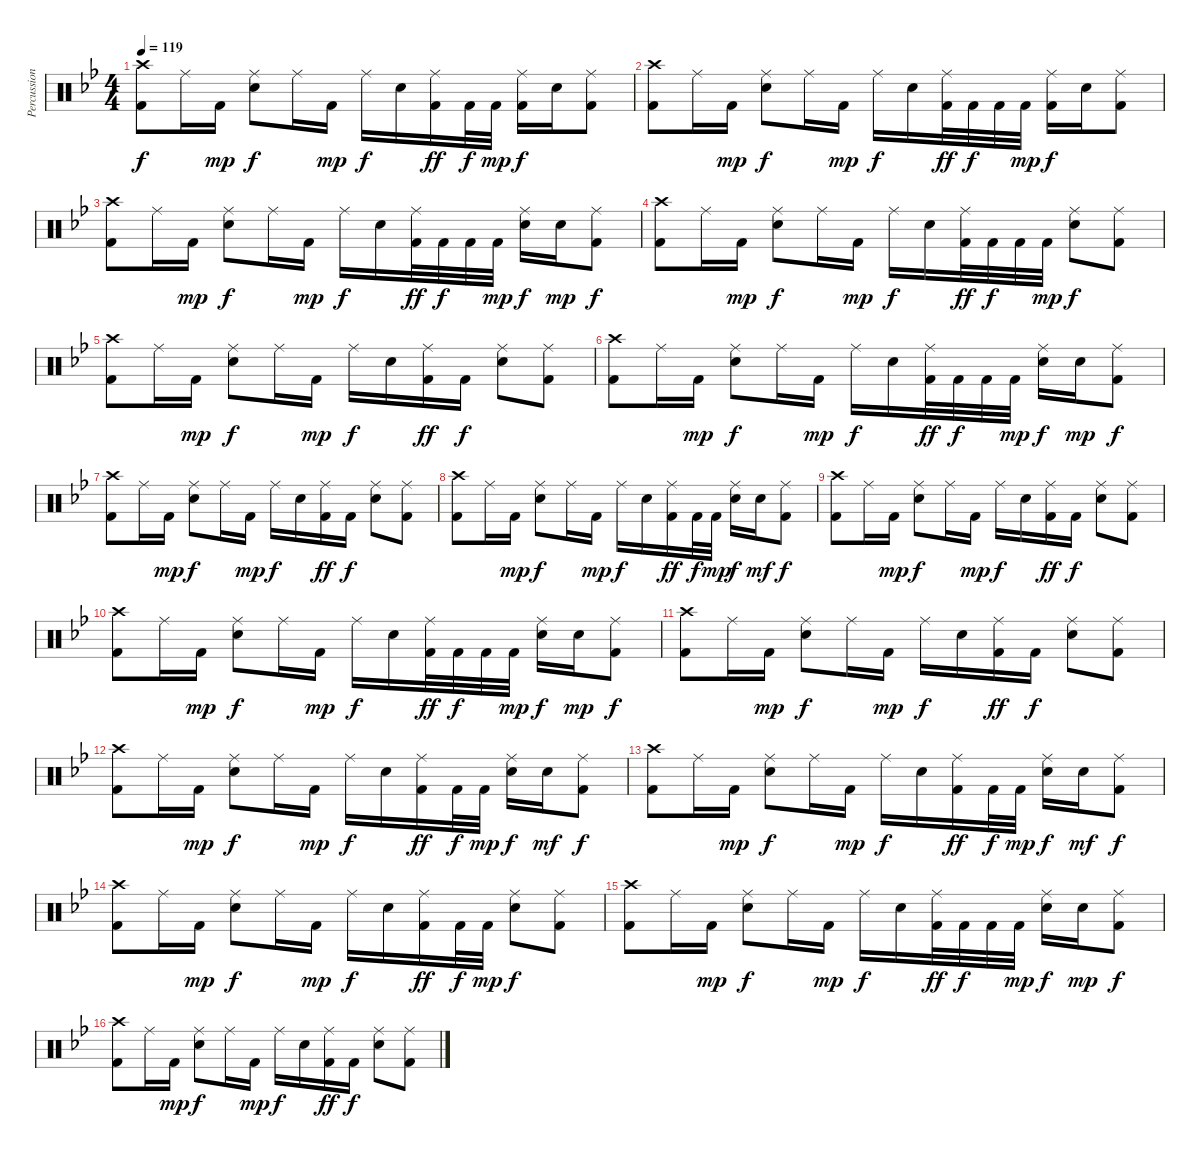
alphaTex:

\track ("Percussions" "Percussion") {instrument percussion}
\staff {score}
\articulation defaults
\ts (4 4)
\tempo 119
\clef neutral
\ks bb
("Crash high (hit)" "Kick (hit) 2").8{dy f} "Ride (middle)".16 "Kick (hit) 2".16{dy mp} ("Ride (middle)" "Snare (hit) 2").8{dy f} "Ride (middle)".16 "Kick (hit) 2".16{dy mp} "Ride (middle)".16{dy f} "Snare (hit) 2".16 ("Ride (middle)" "Kick (hit) 2").16{dy ff} "Kick (hit) 2".32{dy f} "Kick (hit) 2".32{dy mp} ("Ride (middle)" "Kick (hit) 2").16{dy f} "Snare (hit) 2".16 ("Ride (middle)" "Kick (hit) 2").8 |
("Crash high (hit)" "Kick (hit) 2").8 "Ride (middle)".16 "Kick (hit) 2".16{dy mp} ("Ride (middle)" "Snare (hit) 2").8{dy f} "Ride (middle)".16 "Kick (hit) 2".16{dy mp} "Ride (middle)".16{dy f} "Snare (hit) 2".16 ("Ride (middle)" "Kick (hit) 2").32{dy ff} "Kick (hit) 2".32{dy f} "Kick (hit) 2".32 "Kick (hit) 2".32{dy mp} ("Ride (middle)" "Kick (hit) 2").16{dy f} "Snare (hit) 2".16 ("Ride (middle)" "Kick (hit) 2").8 |
("Crash high (hit)" "Kick (hit) 2").8 "Ride (middle)".16 "Kick (hit) 2".16{dy mp} ("Ride (middle)" "Snare (hit) 2").8{dy f} "Ride (middle)".16 "Kick (hit) 2".16{dy mp} "Ride (middle)".16{dy f} "Snare (hit) 2".16 ("Ride (middle)" "Kick (hit) 2").32{dy ff} "Kick (hit) 2".32{dy f} "Kick (hit) 2".32 "Kick (hit) 2".32{dy mp} ("Ride (middle)" "Snare (hit) 2").16{dy f} "Snare (hit) 2".16{dy mp} ("Ride (middle)" "Kick (hit) 2").8{dy f} |
("Crash high (hit)" "Kick (hit) 2").8 "Ride (middle)".16 "Kick (hit) 2".16{dy mp} ("Ride (middle)" "Snare (hit) 2").8{dy f} "Ride (middle)".16 "Kick (hit) 2".16{dy mp} "Ride (middle)".16{dy f} "Snare (hit) 2".16 ("Ride (middle)" "Kick (hit) 2").32{dy ff} "Kick (hit) 2".32{dy f} "Kick (hit) 2".32 "Kick (hit) 2".32{dy mp} ("Ride (middle)" "Snare (hit) 2").8{dy f} ("Ride (middle)" "Kick (hit) 2").8 |
("Crash high (hit)" "Kick (hit) 2").8 "Ride (middle)".16 "Kick (hit) 2".16{dy mp} ("Ride (middle)" "Snare (hit) 2").8{dy f} "Ride (middle)".16 "Kick (hit) 2".16{dy mp} "Ride (middle)".16{dy f} "Snare (hit) 2".16 ("Ride (middle)" "Kick (hit) 2").16{dy ff} "Kick (hit) 2".16{dy f} ("Ride (middle)" "Snare (hit) 2").8 ("Ride (middle)" "Kick (hit) 2").8 |
("Crash high (hit)" "Kick (hit) 2").8 "Ride (middle)".16 "Kick (hit) 2".16{dy mp} ("Ride (middle)" "Snare (hit) 2").8{dy f} "Ride (middle)".16 "Kick (hit) 2".16{dy mp} "Ride (middle)".16{dy f} "Snare (hit) 2".16 ("Ride (middle)" "Kick (hit) 2").32{dy ff} "Kick (hit) 2".32{dy f} "Kick (hit) 2".32 "Kick (hit) 2".32{dy mp} ("Ride (middle)" "Snare (hit) 2").16{dy f} "Snare (hit) 2".16{dy mp} ("Ride (middle)" "Kick (hit) 2").8{dy f} |
("Crash high (hit)" "Kick (hit) 2").8 "Ride (middle)".16 "Kick (hit) 2".16{dy mp} ("Ride (middle)" "Snare (hit) 2").8{dy f} "Ride (middle)".16 "Kick (hit) 2".16{dy mp} "Ride (middle)".16{dy f} "Snare (hit) 2".16 ("Ride (middle)" "Kick (hit) 2").16{dy ff} "Kick (hit) 2".16{dy f} ("Ride (middle)" "Snare (hit) 2").8 ("Ride (middle)" "Kick (hit) 2").8 |
("Crash high (hit)" "Kick (hit) 2").8 "Ride (middle)".16 "Kick (hit) 2".16{dy mp} ("Ride (middle)" "Snare (hit) 2").8{dy f} "Ride (middle)".16 "Kick (hit) 2".16{dy mp} "Ride (middle)".16{dy f} "Snare (hit) 2".16 ("Ride (middle)" "Kick (hit) 2").16{dy ff} "Kick (hit) 2".32{dy f} "Kick (hit) 2".32{dy mp} ("Ride (middle)" "Snare (hit) 2").16{dy f} "Snare (hit) 2".16{dy mf} ("Ride (middle)" "Kick (hit) 2").8{dy f} |
("Crash high (hit)" "Kick (hit) 2").8 "Ride (middle)".16 "Kick (hit) 2".16{dy mp} ("Ride (middle)" "Snare (hit) 2").8{dy f} "Ride (middle)".16 "Kick (hit) 2".16{dy mp} "Ride (middle)".16{dy f} "Snare (hit) 2".16 ("Ride (middle)" "Kick (hit) 2").16{dy ff} "Kick (hit) 2".16{dy f} ("Ride (middle)" "Snare (hit) 2").8 ("Ride (middle)" "Kick (hit) 2").8 |
("Crash high (hit)" "Kick (hit) 2").8 "Ride (middle)".16 "Kick (hit) 2".16{dy mp} ("Ride (middle)" "Snare (hit) 2").8{dy f} "Ride (middle)".16 "Kick (hit) 2".16{dy mp} "Ride (middle)".16{dy f} "Snare (hit) 2".16 ("Ride (middle)" "Kick (hit) 2").32{dy ff} "Kick (hit) 2".32{dy f} "Kick (hit) 2".32 "Kick (hit) 2".32{dy mp} ("Ride (middle)" "Snare (hit) 2").16{dy f} "Snare (hit) 2".16{dy mp} ("Ride (middle)" "Kick (hit) 2").8{dy f} |
("Crash high (hit)" "Kick (hit) 2").8 "Ride (middle)".16 "Kick (hit) 2".16{dy mp} ("Ride (middle)" "Snare (hit) 2").8{dy f} "Ride (middle)".16 "Kick (hit) 2".16{dy mp} "Ride (middle)".16{dy f} "Snare (hit) 2".16 ("Ride (middle)" "Kick (hit) 2").16{dy ff} "Kick (hit) 2".16{dy f} ("Ride (middle)" "Snare (hit) 2").8 ("Ride (middle)" "Kick (hit) 2").8 |
("Crash high (hit)" "Kick (hit) 2").8 "Ride (middle)".16 "Kick (hit) 2".16{dy mp} ("Ride (middle)" "Snare (hit) 2").8{dy f} "Ride (middle)".16 "Kick (hit) 2".16{dy mp} "Ride (middle)".16{dy f} "Snare (hit) 2".16 ("Ride (middle)" "Kick (hit) 2").16{dy ff} "Kick (hit) 2".32{dy f} "Kick (hit) 2".32{dy mp} ("Ride (middle)" "Snare (hit) 2").16{dy f} "Snare (hit) 2".16{dy mf} ("Ride (middle)" "Kick (hit) 2").8{dy f} |
("Crash high (hit)" "Kick (hit) 2").8 "Ride (middle)".16 "Kick (hit) 2".16{dy mp} ("Ride (middle)" "Snare (hit) 2").8{dy f} "Ride (middle)".16 "Kick (hit) 2".16{dy mp} "Ride (middle)".16{dy f} "Snare (hit) 2".16 ("Ride (middle)" "Kick (hit) 2").16{dy ff} "Kick (hit) 2".32{dy f} "Kick (hit) 2".32{dy mp} ("Ride (middle)" "Snare (hit) 2").16{dy f} "Snare (hit) 2".16{dy mf} ("Ride (middle)" "Kick (hit) 2").8{dy f} |
("Crash high (hit)" "Kick (hit) 2").8 "Ride (middle)".16 "Kick (hit) 2".16{dy mp} ("Ride (middle)" "Snare (hit) 2").8{dy f} "Ride (middle)".16 "Kick (hit) 2".16{dy mp} "Ride (middle)".16{dy f} "Snare (hit) 2".16 ("Ride (middle)" "Kick (hit) 2").16{dy ff} "Kick (hit) 2".32{dy f} "Kick (hit) 2".32{dy mp} ("Ride (middle)" "Snare (hit) 2").8{dy f} ("Ride (middle)" "Kick (hit) 2").8 |
("Crash high (hit)" "Kick (hit) 2").8 "Ride (middle)".16 "Kick (hit) 2".16{dy mp} ("Ride (middle)" "Snare (hit) 2").8{dy f} "Ride (middle)".16 "Kick (hit) 2".16{dy mp} "Ride (middle)".16{dy f} "Snare (hit) 2".16 ("Ride (middle)" "Kick (hit) 2").32{dy ff} "Kick (hit) 2".32{dy f} "Kick (hit) 2".32 "Kick (hit) 2".32{dy mp} ("Ride (middle)" "Snare (hit) 2").16{dy f} "Snare (hit) 2".16{dy mp} ("Ride (middle)" "Kick (hit) 2").8{dy f} |
("Crash high (hit)" "Kick (hit) 2").8 "Ride (middle)".16 "Kick (hit) 2".16{dy mp} ("Ride (middle)" "Snare (hit) 2").8{dy f} "Ride (middle)".16 "Kick (hit) 2".16{dy mp} "Ride (middle)".16{dy f} "Snare (hit) 2".16 ("Ride (middle)" "Kick (hit) 2").16{dy ff} "Kick (hit) 2".16{dy f} ("Ride (middle)" "Snare (hit) 2").8 ("Ride (middle)" "Kick (hit) 2").8
